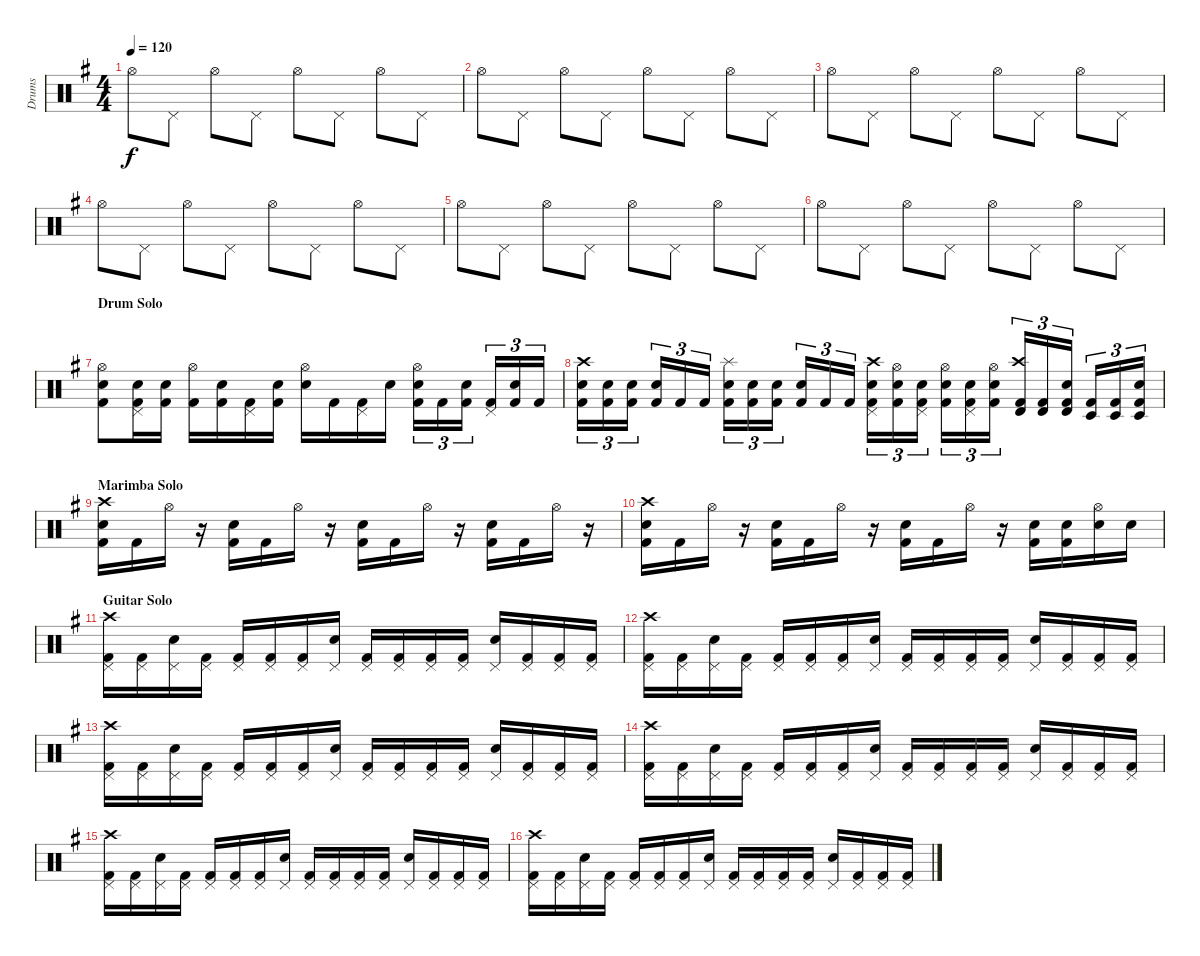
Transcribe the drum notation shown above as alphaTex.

\track ("Drums" "Drums") {instrument percussion}
\staff {score}
\articulation defaults
\ts (4 4)
\tempo 120
\clef neutral
\ks eminor "Hi-Hat (open)".8{dy f} "Pedal Hi-Hat (hit)".8 "Hi-Hat (open)".8 "Pedal Hi-Hat (hit)".8 "Hi-Hat (open)".8 "Pedal Hi-Hat (hit)".8 "Hi-Hat (open)".8 "Pedal Hi-Hat (hit)".8
|
"Hi-Hat (open)".8 "Pedal Hi-Hat (hit)".8 "Hi-Hat (open)".8 "Pedal Hi-Hat (hit)".8 "Hi-Hat (open)".8 "Pedal Hi-Hat (hit)".8 "Hi-Hat (open)".8 "Pedal Hi-Hat (hit)".8 |
"Hi-Hat (open)".8 "Pedal Hi-Hat (hit)".8 "Hi-Hat (open)".8 "Pedal Hi-Hat (hit)".8 "Hi-Hat (open)".8 "Pedal Hi-Hat (hit)".8 "Hi-Hat (open)".8 "Pedal Hi-Hat (hit)".8 |
"Hi-Hat (open)".8 "Pedal Hi-Hat (hit)".8 "Hi-Hat (open)".8 "Pedal Hi-Hat (hit)".8 "Hi-Hat (open)".8 "Pedal Hi-Hat (hit)".8 "Hi-Hat (open)".8 "Pedal Hi-Hat (hit)".8 |
"Hi-Hat (open)".8 "Pedal Hi-Hat (hit)".8 "Hi-Hat (open)".8 "Pedal Hi-Hat (hit)".8 "Hi-Hat (open)".8 "Pedal Hi-Hat (hit)".8 "Hi-Hat (open)".8 "Pedal Hi-Hat (hit)".8 |
"Hi-Hat (open)".8 "Pedal Hi-Hat (hit)".8 "Hi-Hat (open)".8 "Pedal Hi-Hat (hit)".8 "Hi-Hat (open)".8 "Pedal Hi-Hat (hit)".8 "Hi-Hat (open)".8 "Pedal Hi-Hat (hit)".8 |
\section ("" "Drum Solo")
("Electric Snare (hit)" "Hi-Hat (open)" "Kick (hit) 2").8 ("Electric Snare (hit)" "Pedal Hi-Hat (hit)" "Kick (hit) 2").16 ("Electric Snare (hit)" "Kick (hit) 2").16 ("Hi-Hat (open)" "Kick (hit) 2").16 ("Electric Snare (hit)" "Kick (hit) 2").16 ("Pedal Hi-Hat (hit)" "Kick (hit) 2").16 ("Electric Snare (hit)" "Kick (hit) 2").16 ("Electric Snare (hit)" "Hi-Hat (open)").16 "Kick (hit) 2".16 ("Pedal Hi-Hat (hit)" "Kick (hit) 2").16 "Electric Snare (hit)".16 ("Electric Snare (hit)" "Hi-Hat (open)" "Kick (hit) 2").16{tu (3 2)} "Kick (hit) 2".16{tu (3 2)} ("Electric Snare (hit)" "Kick (hit) 2").16{tu (3 2)} ("Pedal Hi-Hat (hit)" "Kick (hit) 2").16{tu (3 2)} ("Electric Snare (hit)" "Kick (hit) 2").16{tu (3 2)} "Kick (hit) 2".16{tu (3 2)} |
("Crash high (hit)" "Electric Snare (hit)" "Kick (hit) 2").16{tu (3 2)} ("Electric Snare (hit)" "Kick (hit) 2").16{tu (3 2)} ("Electric Snare (hit)" "Kick (hit) 2").16{tu (3 2)} ("Electric Snare (hit)" "Kick (hit) 2").16{tu (3 2)} "Kick (hit) 2".16{tu (3 2)} "Kick (hit) 2".16{tu (3 2)} ("Splash (hit)" "Electric Snare (hit)" "Kick (hit) 2").16{tu (3 2)} ("Electric Snare (hit)" "Kick (hit) 2").16{tu (3 2)} ("Electric Snare (hit)" "Kick (hit) 2").16{tu (3 2)} ("Electric Snare (hit)" "Kick (hit) 2").16{tu (3 2)} "Kick (hit) 2".16{tu (3 2)} "Kick (hit) 2".16{tu (3 2)} ("Crash high (hit)" "Electric Snare (hit)" "Pedal Hi-Hat (hit)" "Kick (hit) 2").16{tu (3 2)} ("Snare (hit) 2" "Hi-Hat (open)" "Kick (hit) 2").16{tu (3 2)} ("Electric Snare (hit)" "Pedal Hi-Hat (hit)" "Kick (hit) 2").16{tu (3 2)} ("Snare (hit) 2" "Hi-Hat (open)" "Kick (hit) 2").16{tu (3 2)} ("Electric Snare (hit)" "Pedal Hi-Hat (hit)" "Kick (hit) 2").16{tu (3 2)} ("Snare (hit) 2" "Hi-Hat (open)" "Kick (hit) 2").16{tu (3 2)} ("Crash high (hit)" "Timbale high (hit)" "Kick (hit) 2").16{tu (3 2)} ("Timbale high (hit)" "Kick (hit) 2").16{tu (3 2)} ("Electric Snare (hit)" "Timbale high (hit)" "Kick (hit) 2").16{tu (3 2)} ("Timbale low (hit)" "Kick (hit) 2").16{tu (3 2)} ("Timbale low (hit)" "Kick (hit) 2").16{tu (3 2)} ("Electric Snare (hit)" "Timbale low (hit)" "Kick (hit) 2").16{tu (3 2)} |
\section ("" "Marimba Solo")
("Crash high (hit)" "Electric Snare (hit)" "Kick (hit) 2").16 "Kick (hit) 2".16 "Hi-Hat (open)".16 r.16 ("Electric Snare (hit)" "Kick (hit) 2").16 "Kick (hit) 2".16 "Hi-Hat (open)".16 r.16 ("Electric Snare (hit)" "Kick (hit) 2").16 "Kick (hit) 2".16 "Hi-Hat (open)".16 r.16 ("Electric Snare (hit)" "Kick (hit) 2").16 "Kick (hit) 2".16 "Hi-Hat (open)".16 r.16 |
("Crash high (hit)" "Electric Snare (hit)" "Kick (hit) 2").16 "Kick (hit) 2".16 "Hi-Hat (open)".16 r.16 ("Electric Snare (hit)" "Kick (hit) 2").16 "Kick (hit) 2".16 "Hi-Hat (open)".16 r.16 ("Electric Snare (hit)" "Kick (hit) 2").16 "Kick (hit) 2".16 "Hi-Hat (open)".16 r.16 ("Electric Snare (hit)" "Kick (hit) 2").16 ("Electric Snare (hit)" "Kick (hit) 2").16 ("Hi-Hat (open)" "Electric Snare (hit)").16 "Electric Snare (hit)".16 |
\section ("" "Guitar Solo")
("Crash high (hit)" "Pedal Hi-Hat (hit)" "Kick (hit) 2").16 ("Pedal Hi-Hat (hit)" "Kick (hit) 2").16 ("Pedal Hi-Hat (hit)" "Electric Snare (hit)").16 ("Pedal Hi-Hat (hit)" "Kick (hit) 2").16 ("Pedal Hi-Hat (hit)" "Kick (hit) 2").16 ("Pedal Hi-Hat (hit)" "Kick (hit) 2").16 ("Pedal Hi-Hat (hit)" "Kick (hit) 2").16 ("Pedal Hi-Hat (hit)" "Electric Snare (hit)").16 ("Pedal Hi-Hat (hit)" "Kick (hit) 2").16 ("Pedal Hi-Hat (hit)" "Kick (hit) 2").16 ("Pedal Hi-Hat (hit)" "Kick (hit) 2").16 ("Pedal Hi-Hat (hit)" "Kick (hit) 2").16 ("Pedal Hi-Hat (hit)" "Electric Snare (hit)").16 ("Pedal Hi-Hat (hit)" "Kick (hit) 2").16 ("Pedal Hi-Hat (hit)" "Kick (hit) 2").16 ("Pedal Hi-Hat (hit)" "Kick (hit) 2").16 |
("Crash high (hit)" "Pedal Hi-Hat (hit)" "Kick (hit) 2").16 ("Pedal Hi-Hat (hit)" "Kick (hit) 2").16 ("Pedal Hi-Hat (hit)" "Electric Snare (hit)").16 ("Pedal Hi-Hat (hit)" "Kick (hit) 2").16 ("Pedal Hi-Hat (hit)" "Kick (hit) 2").16 ("Pedal Hi-Hat (hit)" "Kick (hit) 2").16 ("Pedal Hi-Hat (hit)" "Kick (hit) 2").16 ("Pedal Hi-Hat (hit)" "Electric Snare (hit)").16 ("Pedal Hi-Hat (hit)" "Kick (hit) 2").16 ("Pedal Hi-Hat (hit)" "Kick (hit) 2").16 ("Pedal Hi-Hat (hit)" "Kick (hit) 2").16 ("Pedal Hi-Hat (hit)" "Kick (hit) 2").16 ("Pedal Hi-Hat (hit)" "Electric Snare (hit)").16 ("Pedal Hi-Hat (hit)" "Kick (hit) 2").16 ("Pedal Hi-Hat (hit)" "Kick (hit) 2").16 ("Pedal Hi-Hat (hit)" "Kick (hit) 2").16 |
("Crash high (hit)" "Pedal Hi-Hat (hit)" "Kick (hit) 2").16 ("Pedal Hi-Hat (hit)" "Kick (hit) 2").16 ("Pedal Hi-Hat (hit)" "Electric Snare (hit)").16 ("Pedal Hi-Hat (hit)" "Kick (hit) 2").16 ("Pedal Hi-Hat (hit)" "Kick (hit) 2").16 ("Pedal Hi-Hat (hit)" "Kick (hit) 2").16 ("Pedal Hi-Hat (hit)" "Kick (hit) 2").16 ("Pedal Hi-Hat (hit)" "Electric Snare (hit)").16 ("Pedal Hi-Hat (hit)" "Kick (hit) 2").16 ("Pedal Hi-Hat (hit)" "Kick (hit) 2").16 ("Pedal Hi-Hat (hit)" "Kick (hit) 2").16 ("Pedal Hi-Hat (hit)" "Kick (hit) 2").16 ("Pedal Hi-Hat (hit)" "Electric Snare (hit)").16 ("Pedal Hi-Hat (hit)" "Kick (hit) 2").16 ("Pedal Hi-Hat (hit)" "Kick (hit) 2").16 ("Pedal Hi-Hat (hit)" "Kick (hit) 2").16 |
("Crash high (hit)" "Pedal Hi-Hat (hit)" "Kick (hit) 2").16 ("Pedal Hi-Hat (hit)" "Kick (hit) 2").16 ("Pedal Hi-Hat (hit)" "Electric Snare (hit)").16 ("Pedal Hi-Hat (hit)" "Kick (hit) 2").16 ("Pedal Hi-Hat (hit)" "Kick (hit) 2").16 ("Pedal Hi-Hat (hit)" "Kick (hit) 2").16 ("Pedal Hi-Hat (hit)" "Kick (hit) 2").16 ("Pedal Hi-Hat (hit)" "Electric Snare (hit)").16 ("Pedal Hi-Hat (hit)" "Kick (hit) 2").16 ("Pedal Hi-Hat (hit)" "Kick (hit) 2").16 ("Pedal Hi-Hat (hit)" "Kick (hit) 2").16 ("Pedal Hi-Hat (hit)" "Kick (hit) 2").16 ("Pedal Hi-Hat (hit)" "Electric Snare (hit)").16 ("Pedal Hi-Hat (hit)" "Kick (hit) 2").16 ("Pedal Hi-Hat (hit)" "Kick (hit) 2").16 ("Pedal Hi-Hat (hit)" "Kick (hit) 2").16 |
("Crash high (hit)" "Pedal Hi-Hat (hit)" "Kick (hit) 2").16 ("Pedal Hi-Hat (hit)" "Kick (hit) 2").16 ("Pedal Hi-Hat (hit)" "Electric Snare (hit)").16 ("Pedal Hi-Hat (hit)" "Kick (hit) 2").16 ("Pedal Hi-Hat (hit)" "Kick (hit) 2").16 ("Pedal Hi-Hat (hit)" "Kick (hit) 2").16 ("Pedal Hi-Hat (hit)" "Kick (hit) 2").16 ("Pedal Hi-Hat (hit)" "Electric Snare (hit)").16 ("Pedal Hi-Hat (hit)" "Kick (hit) 2").16 ("Pedal Hi-Hat (hit)" "Kick (hit) 2").16 ("Pedal Hi-Hat (hit)" "Kick (hit) 2").16 ("Pedal Hi-Hat (hit)" "Kick (hit) 2").16 ("Pedal Hi-Hat (hit)" "Electric Snare (hit)").16 ("Pedal Hi-Hat (hit)" "Kick (hit) 2").16 ("Pedal Hi-Hat (hit)" "Kick (hit) 2").16 ("Pedal Hi-Hat (hit)" "Kick (hit) 2").16 |
("Crash high (hit)" "Pedal Hi-Hat (hit)" "Kick (hit) 2").16 ("Pedal Hi-Hat (hit)" "Kick (hit) 2").16 ("Pedal Hi-Hat (hit)" "Electric Snare (hit)").16 ("Pedal Hi-Hat (hit)" "Kick (hit) 2").16 ("Pedal Hi-Hat (hit)" "Kick (hit) 2").16 ("Pedal Hi-Hat (hit)" "Kick (hit) 2").16 ("Pedal Hi-Hat (hit)" "Kick (hit) 2").16 ("Pedal Hi-Hat (hit)" "Electric Snare (hit)").16 ("Pedal Hi-Hat (hit)" "Kick (hit) 2").16 ("Pedal Hi-Hat (hit)" "Kick (hit) 2").16 ("Pedal Hi-Hat (hit)" "Kick (hit) 2").16 ("Pedal Hi-Hat (hit)" "Kick (hit) 2").16 ("Pedal Hi-Hat (hit)" "Electric Snare (hit)").16 ("Pedal Hi-Hat (hit)" "Kick (hit) 2").16 ("Pedal Hi-Hat (hit)" "Kick (hit) 2").16 ("Pedal Hi-Hat (hit)" "Kick (hit) 2").16
